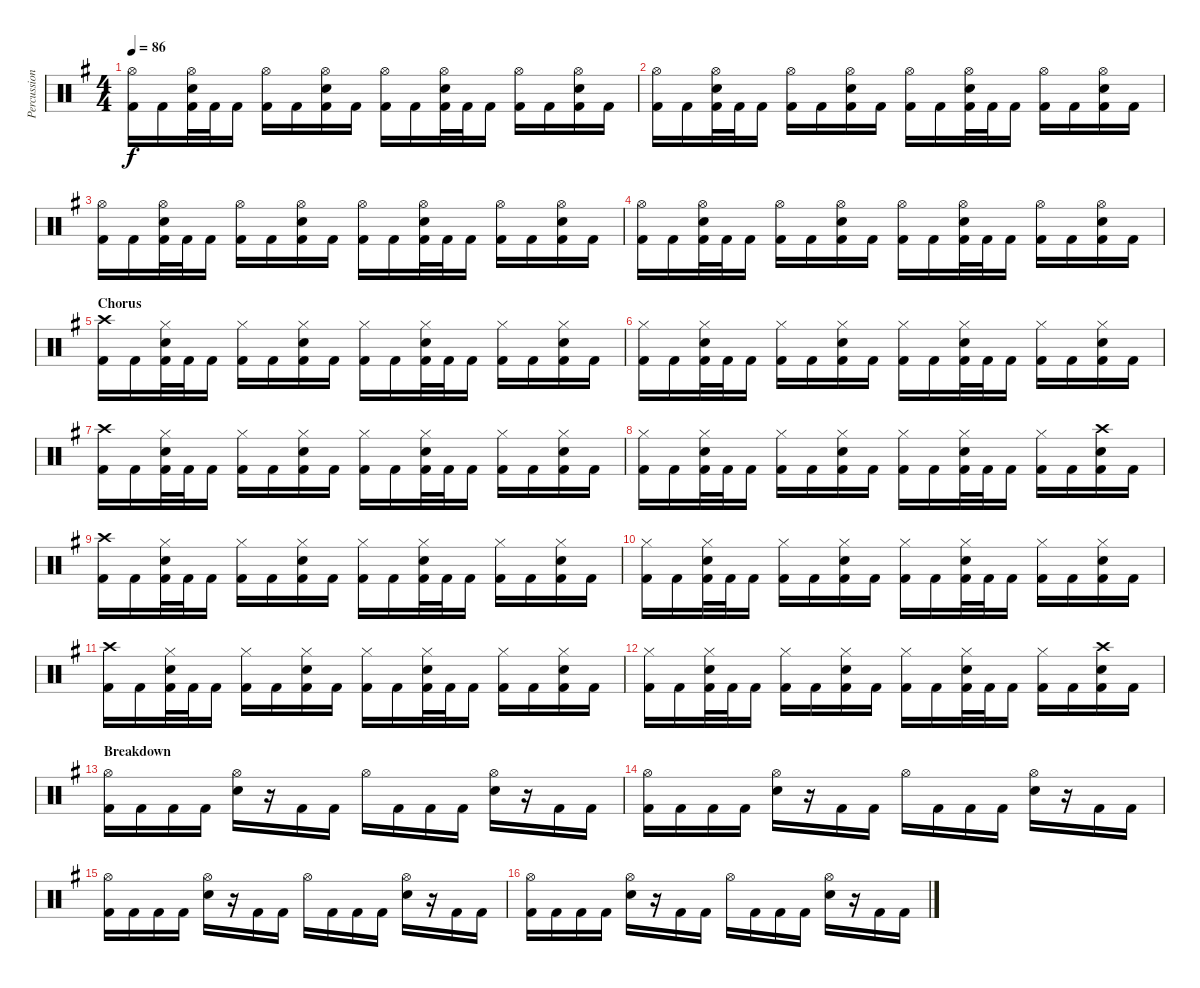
\track ("Percussions" "Percussion") {instrument percussion}
\staff {score}
\articulation defaults
\ts (4 4)
\tempo 86
\clef neutral
\ks eminor
("Hi-Hat (open)" "Kick (hit) 2").16{dy f} "Kick (hit) 2".16 ("Hi-Hat (open)" "Snare (hit) 2" "Kick (hit) 2").32 "Kick (hit) 2".32 "Kick (hit) 2".16 ("Hi-Hat (open)" "Kick (hit) 2").16 "Kick (hit) 2".16 ("Hi-Hat (open)" "Snare (hit) 2" "Kick (hit) 2").16 "Kick (hit) 2".16 ("Hi-Hat (open)" "Kick (hit) 2").16 "Kick (hit) 2".16 ("Hi-Hat (open)" "Snare (hit) 2" "Kick (hit) 2").32 "Kick (hit) 2".32 "Kick (hit) 2".16 ("Hi-Hat (open)" "Kick (hit) 2").16 "Kick (hit) 2".16 ("Hi-Hat (open)" "Snare (hit) 2" "Kick (hit) 2").16 "Kick (hit) 2".16 |
("Hi-Hat (open)" "Kick (hit) 2").16 "Kick (hit) 2".16 ("Hi-Hat (open)" "Snare (hit) 2" "Kick (hit) 2").32 "Kick (hit) 2".32 "Kick (hit) 2".16 ("Hi-Hat (open)" "Kick (hit) 2").16 "Kick (hit) 2".16 ("Hi-Hat (open)" "Snare (hit) 2" "Kick (hit) 2").16 "Kick (hit) 2".16 ("Hi-Hat (open)" "Kick (hit) 2").16 "Kick (hit) 2".16 ("Hi-Hat (open)" "Snare (hit) 2" "Kick (hit) 2").32 "Kick (hit) 2".32 "Kick (hit) 2".16 ("Hi-Hat (open)" "Kick (hit) 2").16 "Kick (hit) 2".16 ("Hi-Hat (open)" "Snare (hit) 2" "Kick (hit) 2").16 "Kick (hit) 2".16 |
("Hi-Hat (open)" "Kick (hit) 2").16 "Kick (hit) 2".16 ("Hi-Hat (open)" "Snare (hit) 2" "Kick (hit) 2").32 "Kick (hit) 2".32 "Kick (hit) 2".16 ("Hi-Hat (open)" "Kick (hit) 2").16 "Kick (hit) 2".16 ("Hi-Hat (open)" "Snare (hit) 2" "Kick (hit) 2").16 "Kick (hit) 2".16 ("Hi-Hat (open)" "Kick (hit) 2").16 "Kick (hit) 2".16 ("Hi-Hat (open)" "Snare (hit) 2" "Kick (hit) 2").32 "Kick (hit) 2".32 "Kick (hit) 2".16 ("Hi-Hat (open)" "Kick (hit) 2").16 "Kick (hit) 2".16 ("Hi-Hat (open)" "Snare (hit) 2" "Kick (hit) 2").16 "Kick (hit) 2".16 |
("Hi-Hat (open)" "Kick (hit) 2").16 "Kick (hit) 2".16 ("Hi-Hat (open)" "Snare (hit) 2" "Kick (hit) 2").32 "Kick (hit) 2".32 "Kick (hit) 2".16 ("Hi-Hat (open)" "Kick (hit) 2").16 "Kick (hit) 2".16 ("Hi-Hat (open)" "Snare (hit) 2" "Kick (hit) 2").16 "Kick (hit) 2".16 ("Hi-Hat (open)" "Kick (hit) 2").16 "Kick (hit) 2".16 ("Hi-Hat (open)" "Snare (hit) 2" "Kick (hit) 2").32 "Kick (hit) 2".32 "Kick (hit) 2".16 ("Hi-Hat (open)" "Kick (hit) 2").16 "Kick (hit) 2".16 ("Hi-Hat (open)" "Snare (hit) 2" "Kick (hit) 2").16 "Kick (hit) 2".16 |
\section ("" "Chorus")
("Crash high (hit)" "Kick (hit) 2").16 "Kick (hit) 2".16 ("Hi-Hat (closed)" "Snare (hit) 2" "Kick (hit) 2").32 "Kick (hit) 2".32 "Kick (hit) 2".16 ("Hi-Hat (closed)" "Kick (hit) 2").16 "Kick (hit) 2".16 ("Hi-Hat (closed)" "Snare (hit) 2" "Kick (hit) 2").16 "Kick (hit) 2".16 ("Hi-Hat (closed)" "Kick (hit) 2").16 "Kick (hit) 2".16 ("Hi-Hat (closed)" "Snare (hit) 2" "Kick (hit) 2").32 "Kick (hit) 2".32 "Kick (hit) 2".16 ("Hi-Hat (closed)" "Kick (hit) 2").16 "Kick (hit) 2".16 ("Hi-Hat (closed)" "Snare (hit) 2" "Kick (hit) 2").16 "Kick (hit) 2".16 |
("Hi-Hat (closed)" "Kick (hit) 2").16 "Kick (hit) 2".16 ("Hi-Hat (closed)" "Snare (hit) 2" "Kick (hit) 2").32 "Kick (hit) 2".32 "Kick (hit) 2".16 ("Hi-Hat (closed)" "Kick (hit) 2").16 "Kick (hit) 2".16 ("Hi-Hat (closed)" "Snare (hit) 2" "Kick (hit) 2").16 "Kick (hit) 2".16 ("Hi-Hat (closed)" "Kick (hit) 2").16 "Kick (hit) 2".16 ("Hi-Hat (closed)" "Snare (hit) 2" "Kick (hit) 2").32 "Kick (hit) 2".32 "Kick (hit) 2".16 ("Hi-Hat (closed)" "Kick (hit) 2").16 "Kick (hit) 2".16 ("Hi-Hat (closed)" "Snare (hit) 2" "Kick (hit) 2").16 "Kick (hit) 2".16 |
("Crash high (hit)" "Kick (hit) 2").16 "Kick (hit) 2".16 ("Hi-Hat (closed)" "Snare (hit) 2" "Kick (hit) 2").32 "Kick (hit) 2".32 "Kick (hit) 2".16 ("Hi-Hat (closed)" "Kick (hit) 2").16 "Kick (hit) 2".16 ("Hi-Hat (closed)" "Snare (hit) 2" "Kick (hit) 2").16 "Kick (hit) 2".16 ("Hi-Hat (closed)" "Kick (hit) 2").16 "Kick (hit) 2".16 ("Hi-Hat (closed)" "Snare (hit) 2" "Kick (hit) 2").32 "Kick (hit) 2".32 "Kick (hit) 2".16 ("Hi-Hat (closed)" "Kick (hit) 2").16 "Kick (hit) 2".16 ("Hi-Hat (closed)" "Snare (hit) 2" "Kick (hit) 2").16 "Kick (hit) 2".16 |
("Hi-Hat (closed)" "Kick (hit) 2").16 "Kick (hit) 2".16 ("Hi-Hat (closed)" "Snare (hit) 2" "Kick (hit) 2").32 "Kick (hit) 2".32 "Kick (hit) 2".16 ("Hi-Hat (closed)" "Kick (hit) 2").16 "Kick (hit) 2".16 ("Hi-Hat (closed)" "Snare (hit) 2" "Kick (hit) 2").16 "Kick (hit) 2".16 ("Hi-Hat (closed)" "Kick (hit) 2").16 "Kick (hit) 2".16 ("Hi-Hat (closed)" "Snare (hit) 2" "Kick (hit) 2").32 "Kick (hit) 2".32 "Kick (hit) 2".16 ("Hi-Hat (closed)" "Kick (hit) 2").16 "Kick (hit) 2".16 ("Crash high (hit)" "Snare (hit) 2" "Kick (hit) 2").16 "Kick (hit) 2".16 |
("Crash high (hit)" "Kick (hit) 2").16 "Kick (hit) 2".16 ("Hi-Hat (closed)" "Snare (hit) 2" "Kick (hit) 2").32 "Kick (hit) 2".32 "Kick (hit) 2".16 ("Hi-Hat (closed)" "Kick (hit) 2").16 "Kick (hit) 2".16 ("Hi-Hat (closed)" "Snare (hit) 2" "Kick (hit) 2").16 "Kick (hit) 2".16 ("Hi-Hat (closed)" "Kick (hit) 2").16 "Kick (hit) 2".16 ("Hi-Hat (closed)" "Snare (hit) 2" "Kick (hit) 2").32 "Kick (hit) 2".32 "Kick (hit) 2".16 ("Hi-Hat (closed)" "Kick (hit) 2").16 "Kick (hit) 2".16 ("Hi-Hat (closed)" "Snare (hit) 2" "Kick (hit) 2").16 "Kick (hit) 2".16 |
("Hi-Hat (closed)" "Kick (hit) 2").16 "Kick (hit) 2".16 ("Hi-Hat (closed)" "Snare (hit) 2" "Kick (hit) 2").32 "Kick (hit) 2".32 "Kick (hit) 2".16 ("Hi-Hat (closed)" "Kick (hit) 2").16 "Kick (hit) 2".16 ("Hi-Hat (closed)" "Snare (hit) 2" "Kick (hit) 2").16 "Kick (hit) 2".16 ("Hi-Hat (closed)" "Kick (hit) 2").16 "Kick (hit) 2".16 ("Hi-Hat (closed)" "Snare (hit) 2" "Kick (hit) 2").32 "Kick (hit) 2".32 "Kick (hit) 2".16 ("Hi-Hat (closed)" "Kick (hit) 2").16 "Kick (hit) 2".16 ("Hi-Hat (closed)" "Snare (hit) 2" "Kick (hit) 2").16 "Kick (hit) 2".16 |
("Crash high (hit)" "Kick (hit) 2").16 "Kick (hit) 2".16 ("Hi-Hat (closed)" "Snare (hit) 2" "Kick (hit) 2").32 "Kick (hit) 2".32 "Kick (hit) 2".16 ("Hi-Hat (closed)" "Kick (hit) 2").16 "Kick (hit) 2".16 ("Hi-Hat (closed)" "Snare (hit) 2" "Kick (hit) 2").16 "Kick (hit) 2".16 ("Hi-Hat (closed)" "Kick (hit) 2").16 "Kick (hit) 2".16 ("Hi-Hat (closed)" "Snare (hit) 2" "Kick (hit) 2").32 "Kick (hit) 2".32 "Kick (hit) 2".16 ("Hi-Hat (closed)" "Kick (hit) 2").16 "Kick (hit) 2".16 ("Hi-Hat (closed)" "Snare (hit) 2" "Kick (hit) 2").16 "Kick (hit) 2".16 |
("Hi-Hat (closed)" "Kick (hit) 2").16 "Kick (hit) 2".16 ("Hi-Hat (closed)" "Snare (hit) 2" "Kick (hit) 2").32 "Kick (hit) 2".32 "Kick (hit) 2".16 ("Hi-Hat (closed)" "Kick (hit) 2").16 "Kick (hit) 2".16 ("Hi-Hat (closed)" "Snare (hit) 2" "Kick (hit) 2").16 "Kick (hit) 2".16 ("Hi-Hat (closed)" "Kick (hit) 2").16 "Kick (hit) 2".16 ("Hi-Hat (closed)" "Snare (hit) 2" "Kick (hit) 2").32 "Kick (hit) 2".32 "Kick (hit) 2".16 ("Hi-Hat (closed)" "Kick (hit) 2").16 "Kick (hit) 2".16 ("Crash high (hit)" "Snare (hit) 2" "Kick (hit) 2").16 "Kick (hit) 2".16 |
\section ("" "Breakdown")
("Hi-Hat (open)" "Kick (hit) 2").16 "Kick (hit) 2".16 "Kick (hit) 2".16 "Kick (hit) 2".16 ("Hi-Hat (open)" "Snare (hit) 2").16 r.16 "Kick (hit) 2".16 "Kick (hit) 2".16 "Hi-Hat (open)".16 "Kick (hit) 2".16 "Kick (hit) 2".16 "Kick (hit) 2".16 ("Hi-Hat (open)" "Snare (hit) 2").16 r.16 "Kick (hit) 2".16 "Kick (hit) 2".16 |
("Hi-Hat (open)" "Kick (hit) 2").16 "Kick (hit) 2".16 "Kick (hit) 2".16 "Kick (hit) 2".16 ("Hi-Hat (open)" "Snare (hit) 2").16 r.16 "Kick (hit) 2".16 "Kick (hit) 2".16 "Hi-Hat (open)".16 "Kick (hit) 2".16 "Kick (hit) 2".16 "Kick (hit) 2".16 ("Hi-Hat (open)" "Snare (hit) 2").16 r.16 "Kick (hit) 2".16 "Kick (hit) 2".16 |
("Hi-Hat (open)" "Kick (hit) 2").16 "Kick (hit) 2".16 "Kick (hit) 2".16 "Kick (hit) 2".16 ("Hi-Hat (open)" "Snare (hit) 2").16 r.16 "Kick (hit) 2".16 "Kick (hit) 2".16 "Hi-Hat (open)".16 "Kick (hit) 2".16 "Kick (hit) 2".16 "Kick (hit) 2".16 ("Hi-Hat (open)" "Snare (hit) 2").16 r.16 "Kick (hit) 2".16 "Kick (hit) 2".16 |
("Hi-Hat (open)" "Kick (hit) 2").16 "Kick (hit) 2".16 "Kick (hit) 2".16 "Kick (hit) 2".16 ("Hi-Hat (open)" "Snare (hit) 2").16 r.16 "Kick (hit) 2".16 "Kick (hit) 2".16 "Hi-Hat (open)".16 "Kick (hit) 2".16 "Kick (hit) 2".16 "Kick (hit) 2".16 ("Hi-Hat (open)" "Snare (hit) 2").16 r.16 "Kick (hit) 2".16 "Kick (hit) 2".16
